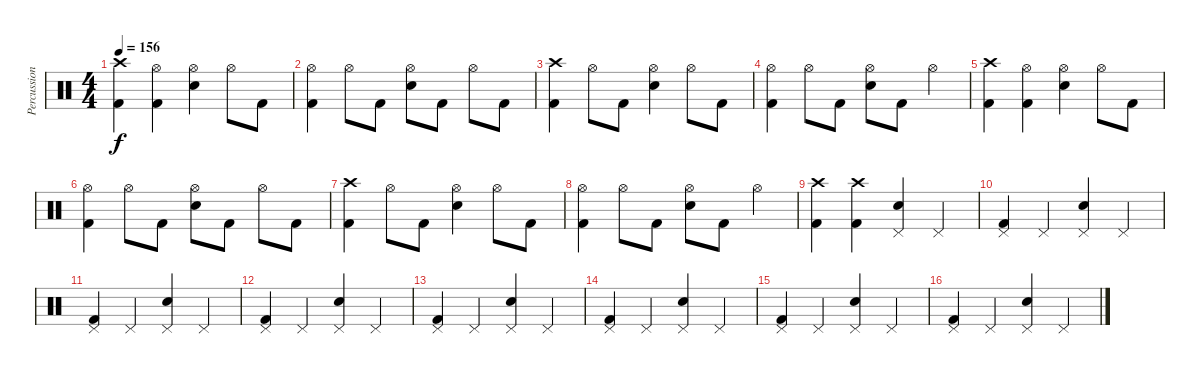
\track ("Percussions" "Percussion") {instrument percussion}
\staff {score}
\articulation defaults
\ts (4 4)
\tempo 156
\clef neutral
\ks c
("Crash high (hit)" "Kick (hit) 2").4{dy f} ("Hi-Hat (open)" "Kick (hit) 2").4 ("Hi-Hat (open)" "Electric Snare (hit)").4 "Hi-Hat (open)".8 "Kick (hit) 2".8 |
("Hi-Hat (open)" "Kick (hit) 2").4 "Hi-Hat (open)".8 "Kick (hit) 2".8 ("Hi-Hat (open)" "Electric Snare (hit)").8 "Kick (hit) 2".8 "Hi-Hat (open)".8 "Kick (hit) 2".8 |
("Crash high (hit)" "Kick (hit) 2").4 "Hi-Hat (open)".8 "Kick (hit) 2".8 ("Hi-Hat (open)" "Electric Snare (hit)").4 "Hi-Hat (open)".8 "Kick (hit) 2".8 |
("Hi-Hat (open)" "Kick (hit) 2").4 "Hi-Hat (open)".8 "Kick (hit) 2".8 ("Hi-Hat (open)" "Electric Snare (hit)").8 "Kick (hit) 2".8 "Hi-Hat (open)".4 |
("Crash high (hit)" "Kick (hit) 2").4 ("Hi-Hat (open)" "Kick (hit) 2").4 ("Hi-Hat (open)" "Electric Snare (hit)").4 "Hi-Hat (open)".8 "Kick (hit) 2".8 |
("Hi-Hat (open)" "Kick (hit) 2").4 "Hi-Hat (open)".8 "Kick (hit) 2".8 ("Hi-Hat (open)" "Electric Snare (hit)").8 "Kick (hit) 2".8 "Hi-Hat (open)".8 "Kick (hit) 2".8 |
("Crash high (hit)" "Kick (hit) 2").4 "Hi-Hat (open)".8 "Kick (hit) 2".8 ("Hi-Hat (open)" "Electric Snare (hit)").4 "Hi-Hat (open)".8 "Kick (hit) 2".8 |
("Hi-Hat (open)" "Kick (hit) 2").4 "Hi-Hat (open)".8 "Kick (hit) 2".8 ("Hi-Hat (open)" "Electric Snare (hit)").8 "Kick (hit) 2".8 "Hi-Hat (open)".4 |
("Crash high (hit)" "Kick (hit) 2").4 ("Crash high (hit)" "Kick (hit) 2").4 ("Pedal Hi-Hat (hit)" "Electric Snare (hit)").4 "Pedal Hi-Hat (hit)".4 |
("Pedal Hi-Hat (hit)" "Kick (hit) 2").4 "Pedal Hi-Hat (hit)".4 ("Pedal Hi-Hat (hit)" "Electric Snare (hit)").4 "Pedal Hi-Hat (hit)".4 |
("Pedal Hi-Hat (hit)" "Kick (hit) 2").4 "Pedal Hi-Hat (hit)".4 ("Pedal Hi-Hat (hit)" "Electric Snare (hit)").4 "Pedal Hi-Hat (hit)".4 |
("Pedal Hi-Hat (hit)" "Kick (hit) 2").4 "Pedal Hi-Hat (hit)".4 ("Pedal Hi-Hat (hit)" "Electric Snare (hit)").4 "Pedal Hi-Hat (hit)".4 |
("Pedal Hi-Hat (hit)" "Kick (hit) 2").4 "Pedal Hi-Hat (hit)".4 ("Pedal Hi-Hat (hit)" "Electric Snare (hit)").4 "Pedal Hi-Hat (hit)".4 |
("Pedal Hi-Hat (hit)" "Kick (hit) 2").4 "Pedal Hi-Hat (hit)".4 ("Pedal Hi-Hat (hit)" "Electric Snare (hit)").4 "Pedal Hi-Hat (hit)".4 |
("Pedal Hi-Hat (hit)" "Kick (hit) 2").4 "Pedal Hi-Hat (hit)".4 ("Pedal Hi-Hat (hit)" "Electric Snare (hit)").4 "Pedal Hi-Hat (hit)".4 |
("Pedal Hi-Hat (hit)" "Kick (hit) 2").4 "Pedal Hi-Hat (hit)".4 ("Pedal Hi-Hat (hit)" "Electric Snare (hit)").4 "Pedal Hi-Hat (hit)".4
